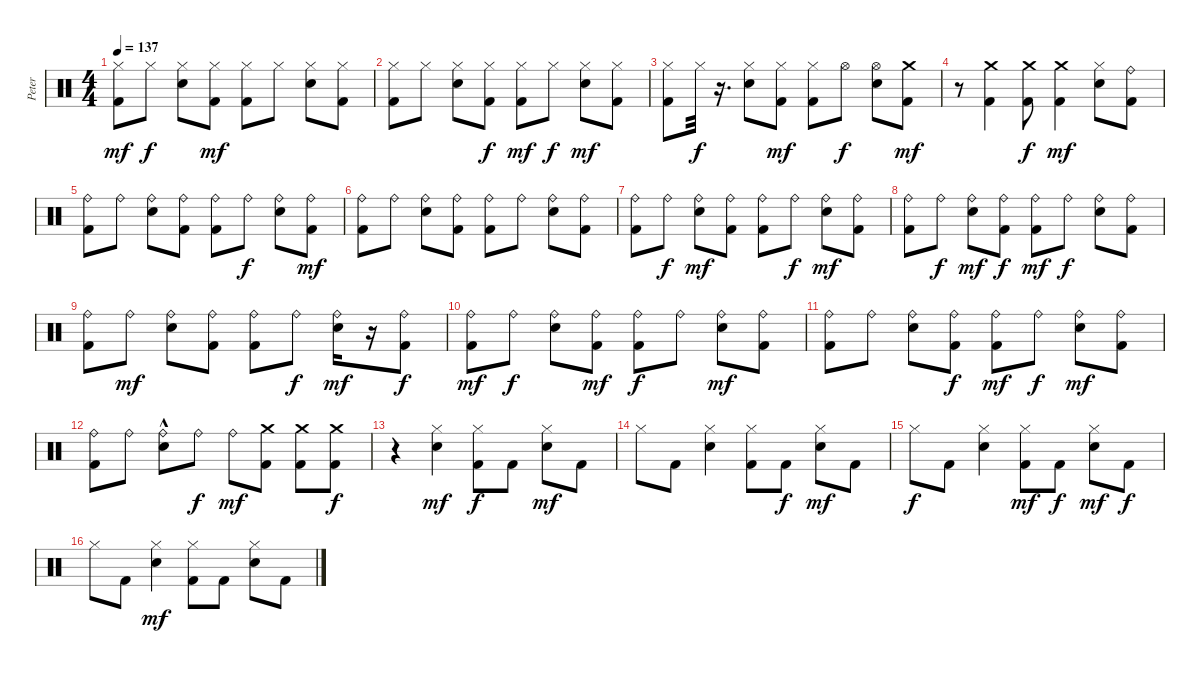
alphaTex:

\track ("Peter" "Peter") {instrument percussion}
\staff {score}
\articulation defaults
\ts (4 4)
\tempo 137
\clef neutral
\ks c
("Hi-Hat (closed)" "Kick (hit) 2").8{dy mf} "Hi-Hat (closed)".8{dy f} ("Electric Snare (hit)" "Hi-Hat (closed)").8 ("Hi-Hat (closed)" "Kick (hit) 2").8{dy mf} ("Kick (hit) 2" "Hi-Hat (closed)").8 "Hi-Hat (closed)".8 ("Electric Snare (hit)" "Hi-Hat (closed)").8 ("Kick (hit) 2" "Hi-Hat (closed)").8 |
("Hi-Hat (closed)" "Kick (hit) 2").8 "Hi-Hat (closed)".8 ("Electric Snare (hit)" "Hi-Hat (closed)").8 ("Hi-Hat (closed)" "Kick (hit) 2").8{dy f} ("Kick (hit) 2" "Hi-Hat (closed)").8{dy mf} "Hi-Hat (closed)".8{dy f} ("Electric Snare (hit)" "Hi-Hat (closed)").8{dy mf} ("Kick (hit) 2" "Hi-Hat (closed)").8 |
("Kick (hit) 2" "Hi-Hat (closed)").8 "Hi-Hat (closed)".32{dy f} r.16{d} ("Hi-Hat (closed)" "Electric Snare (hit)").8 ("Kick (hit) 2" "Hi-Hat (closed)").8{dy mf} ("Hi-Hat (closed)" "Kick (hit) 2").8 "Hi-Hat (open)".8{dy f} ("Hi-Hat (open)" "Electric Snare (hit)").8 ("Crash medium (hit)" "Kick (hit) 2").8{dy mf} |
r.8 ("Crash medium (hit)" "Kick (hit) 2").4 ("Crash medium (hit)" "Kick (hit) 2").8{dy f} ("Kick (hit) 2" "Crash medium (hit)").4{dy mf} ("Hi-Hat (closed)" "Electric Snare (hit)").8 ("Ride (bell)" "Kick (hit) 2").8 |
("Ride (bell)" "Kick (hit) 2").8 "Ride (bell)".8 ("Ride (bell)" "Electric Snare (hit)").8 ("Ride (bell)" "Kick (hit) 2").8 ("Ride (bell)" "Kick (hit) 2").8 "Ride (bell)".8{dy f} ("Electric Snare (hit)" "Ride (bell)").8 ("Ride (bell)" "Kick (hit) 2").8{dy mf} |
("Kick (hit) 2" "Ride (bell)").8 "Ride (bell)".8 ("Electric Snare (hit)" "Ride (bell)").8 ("Ride (bell)" "Kick (hit) 2").8 ("Kick (hit) 2" "Ride (bell)").8 "Ride (bell)".8 ("Ride (bell)" "Electric Snare (hit)").8 ("Ride (bell)" "Kick (hit) 2").8 |
("Kick (hit) 2" "Ride (bell)").8 "Ride (bell)".8{dy f} ("Ride (bell)" "Electric Snare (hit)").8{dy mf} ("Ride (bell)" "Kick (hit) 2").8 ("Ride (bell)" "Kick (hit) 2").8 "Ride (bell)".8{dy f} ("Electric Snare (hit)" "Ride (bell)").8{dy mf} ("Kick (hit) 2" "Ride (bell)").8 |
("Ride (bell)" "Kick (hit) 2").8 "Ride (bell)".8{dy f} ("Ride (bell)" "Electric Snare (hit)").8{dy mf} ("Ride (bell)" "Kick (hit) 2").8{dy f} ("Kick (hit) 2" "Ride (bell)").8{dy mf} "Ride (bell)".8{dy f} ("Ride (bell)" "Electric Snare (hit)").8 ("Kick (hit) 2" "Ride (bell)").8 |
("Ride (bell)" "Kick (hit) 2").8 "Ride (bell)".8{dy mf} ("Ride (bell)" "Electric Snare (hit)").8 ("Ride (bell)" "Kick (hit) 2").8 ("Ride (bell)" "Kick (hit) 2").8 "Ride (bell)".8{dy f} ("Electric Snare (hit)" "Ride (bell)").16{dy mf} r.16 ("Ride (bell)" "Kick (hit) 2").8{dy f} |
("Ride (bell)" "Kick (hit) 2").8{dy mf} "Ride (bell)".8{dy f} ("Ride (bell)" "Electric Snare (hit)").8 ("Ride (bell)" "Kick (hit) 2").8{dy mf} ("Ride (bell)" "Kick (hit) 2").8{dy f} "Ride (bell)".8 ("Electric Snare (hit)" "Ride (bell)").8{dy mf} ("Ride (bell)" "Kick (hit) 2").8 |
("Kick (hit) 2" "Ride (bell)").8 "Ride (bell)".8 ("Electric Snare (hit)" "Ride (bell)").8 ("Ride (bell)" "Kick (hit) 2").8{dy f} ("Ride (bell)" "Kick (hit) 2").8{dy mf} "Ride (bell)".8{dy f} ("Ride (bell)" "Electric Snare (hit)").8{dy mf} ("Ride (bell)" "Kick (hit) 2").8 |
("Ride (bell)" "Kick (hit) 2").8 "Ride (bell)".8 ("Electric Snare (hit)"{hac} "Ride (bell)").8 "Ride (bell)".8{dy f} "Ride (bell)".8{dy mf} ("Kick (hit) 2" "Crash medium (hit)").8 ("Kick (hit) 2" "Crash medium (hit)").8 ("Kick (hit) 2" "Crash medium (hit)").8{dy f} |
r.4 ("Electric Snare (hit)" "Hi-Hat (closed)").4{dy mf} ("Hi-Hat (closed)" "Kick (hit) 2").8{dy f} "Kick (hit) 2".8 ("Hi-Hat (closed)" "Electric Snare (hit)").8{dy mf} "Kick (hit) 2".8 |
"Hi-Hat (closed)".8 "Kick (hit) 2".8 ("Hi-Hat (closed)" "Electric Snare (hit)").4 ("Hi-Hat (closed)" "Kick (hit) 2").8 "Kick (hit) 2".8{dy f} ("Hi-Hat (closed)" "Electric Snare (hit)").8{dy mf} "Kick (hit) 2".8 |
"Hi-Hat (closed)".8{dy f} "Kick (hit) 2".8 ("Electric Snare (hit)" "Hi-Hat (closed)").4 ("Kick (hit) 2" "Hi-Hat (closed)").8{dy mf} "Kick (hit) 2".8{dy f} ("Hi-Hat (closed)" "Electric Snare (hit)").8{dy mf} "Kick (hit) 2".8{dy f} |
"Hi-Hat (closed)".8 "Kick (hit) 2".8 ("Hi-Hat (closed)" "Electric Snare (hit)").4{dy mf} ("Hi-Hat (closed)" "Kick (hit) 2").8 "Kick (hit) 2".8 ("Electric Snare (hit)" "Hi-Hat (closed)").8 "Kick (hit) 2".8
